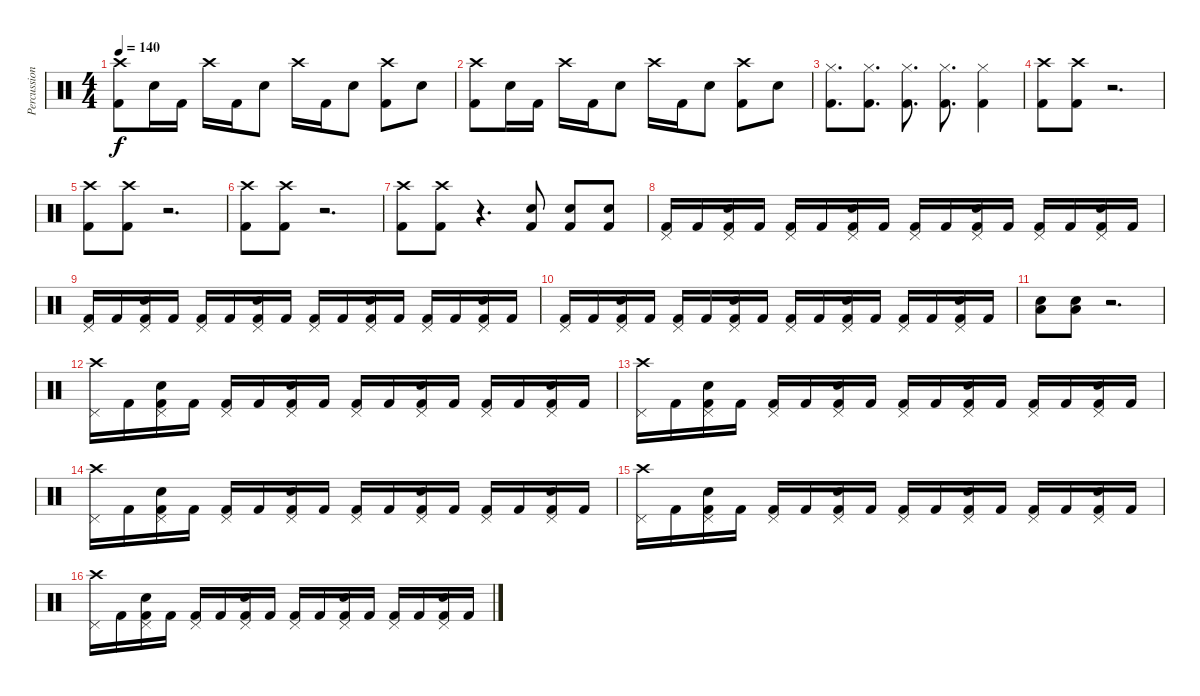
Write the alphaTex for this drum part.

\track ("Percussions" "Percussion") {instrument percussion}
\staff {score}
\articulation defaults
\ts (4 4)
\tempo 140
\clef neutral
\ks c
("Kick (hit) 2" "Crash high (hit)").8{dy f} "Electric Snare (hit)".16 "Kick (hit) 2".16 "Crash high (hit)".16 "Kick (hit) 2".16 "Electric Snare (hit)".8 "Crash high (hit)".16 "Kick (hit) 2".16 "Electric Snare (hit)".8 ("Crash high (hit)" "Kick (hit) 2").8 "Electric Snare (hit)".8 |
("Kick (hit) 2" "Crash high (hit)").8 "Electric Snare (hit)".16 "Kick (hit) 2".16 "Crash high (hit)".16 "Kick (hit) 2".16 "Electric Snare (hit)".8 "Crash high (hit)".16 "Kick (hit) 2".16 "Electric Snare (hit)".8 ("Crash high (hit)" "Kick (hit) 2").8 "Electric Snare (hit)".8 |
("Kick (hit) 2" "Hi-Hat (closed)").8{d} ("Kick (hit) 2" "Hi-Hat (closed)").8{d} ("Kick (hit) 2" "Hi-Hat (closed)").8{d} ("Kick (hit) 2" "Hi-Hat (closed)").8{d} ("Kick (hit) 2" "Hi-Hat (closed)").4 |
("Crash high (hit)" "Kick (hit) 2").8 ("Crash high (hit)" "Kick (hit) 2").8 r.2{d} |
("Crash high (hit)" "Kick (hit) 2").8 ("Crash high (hit)" "Kick (hit) 2").8 r.2{d} |
("Crash high (hit)" "Kick (hit) 2").8 ("Crash high (hit)" "Kick (hit) 2").8 r.2{d} |
("Crash high (hit)" "Kick (hit) 2").8 ("Crash high (hit)" "Kick (hit) 2").8 r.4{d} ("Kick (hit) 2" "Electric Snare (hit)").8 ("Electric Snare (hit)" "Kick (hit) 2").8 ("Electric Snare (hit)" "Kick (hit) 2").8 |
("Pedal Hi-Hat (hit)" "Kick (hit) 2").16 "Kick (hit) 2".16 ("Pedal Hi-Hat (hit)" "Electric Snare (hit)" "Kick (hit) 2").16 "Kick (hit) 2".16 ("Pedal Hi-Hat (hit)" "Kick (hit) 2").16 "Kick (hit) 2".16 ("Pedal Hi-Hat (hit)" "Electric Snare (hit)" "Kick (hit) 2").16 "Kick (hit) 2".16 ("Pedal Hi-Hat (hit)" "Kick (hit) 2").16 "Kick (hit) 2".16 ("Pedal Hi-Hat (hit)" "Electric Snare (hit)" "Kick (hit) 2").16 "Kick (hit) 2".16 ("Pedal Hi-Hat (hit)" "Kick (hit) 2").16 "Kick (hit) 2".16 ("Pedal Hi-Hat (hit)" "Electric Snare (hit)" "Kick (hit) 2").16 "Kick (hit) 2".16 |
("Pedal Hi-Hat (hit)" "Kick (hit) 2").16 "Kick (hit) 2".16 ("Pedal Hi-Hat (hit)" "Electric Snare (hit)" "Kick (hit) 2").16 "Kick (hit) 2".16 ("Pedal Hi-Hat (hit)" "Kick (hit) 2").16 "Kick (hit) 2".16 ("Pedal Hi-Hat (hit)" "Electric Snare (hit)" "Kick (hit) 2").16 "Kick (hit) 2".16 ("Pedal Hi-Hat (hit)" "Kick (hit) 2").16 "Kick (hit) 2".16 ("Pedal Hi-Hat (hit)" "Electric Snare (hit)" "Kick (hit) 2").16 "Kick (hit) 2".16 ("Pedal Hi-Hat (hit)" "Kick (hit) 2").16 "Kick (hit) 2".16 ("Pedal Hi-Hat (hit)" "Electric Snare (hit)" "Kick (hit) 2").16 "Kick (hit) 2".16 |
("Pedal Hi-Hat (hit)" "Kick (hit) 2").16 "Kick (hit) 2".16 ("Pedal Hi-Hat (hit)" "Electric Snare (hit)" "Kick (hit) 2").16 "Kick (hit) 2".16 ("Pedal Hi-Hat (hit)" "Kick (hit) 2").16 "Kick (hit) 2".16 ("Pedal Hi-Hat (hit)" "Electric Snare (hit)" "Kick (hit) 2").16 "Kick (hit) 2".16 ("Pedal Hi-Hat (hit)" "Kick (hit) 2").16 "Kick (hit) 2".16 ("Pedal Hi-Hat (hit)" "Electric Snare (hit)" "Kick (hit) 2").16 "Kick (hit) 2".16 ("Pedal Hi-Hat (hit)" "Kick (hit) 2").16 "Kick (hit) 2".16 ("Pedal Hi-Hat (hit)" "Electric Snare (hit)" "Kick (hit) 2").16 "Kick (hit) 2".16 |
("Low Floor Tom (hit)" "Electric Snare (hit)").8 ("Low Floor Tom (hit)" "Electric Snare (hit)").8 r.2{d} |
("Pedal Hi-Hat (hit)" "Crash high (hit)").16 "Kick (hit) 2".16 ("Pedal Hi-Hat (hit)" "Electric Snare (hit)" "Kick (hit) 2").16 "Kick (hit) 2".16 ("Pedal Hi-Hat (hit)" "Kick (hit) 2").16 "Kick (hit) 2".16 ("Pedal Hi-Hat (hit)" "Electric Snare (hit)" "Kick (hit) 2").16 "Kick (hit) 2".16 ("Pedal Hi-Hat (hit)" "Kick (hit) 2").16 "Kick (hit) 2".16 ("Pedal Hi-Hat (hit)" "Electric Snare (hit)" "Kick (hit) 2").16 "Kick (hit) 2".16 ("Pedal Hi-Hat (hit)" "Kick (hit) 2").16 "Kick (hit) 2".16 ("Pedal Hi-Hat (hit)" "Electric Snare (hit)" "Kick (hit) 2").16 "Kick (hit) 2".16 |
("Pedal Hi-Hat (hit)" "Crash high (hit)").16 "Kick (hit) 2".16 ("Pedal Hi-Hat (hit)" "Electric Snare (hit)" "Kick (hit) 2").16 "Kick (hit) 2".16 ("Pedal Hi-Hat (hit)" "Kick (hit) 2").16 "Kick (hit) 2".16 ("Pedal Hi-Hat (hit)" "Electric Snare (hit)" "Kick (hit) 2").16 "Kick (hit) 2".16 ("Pedal Hi-Hat (hit)" "Kick (hit) 2").16 "Kick (hit) 2".16 ("Pedal Hi-Hat (hit)" "Electric Snare (hit)" "Kick (hit) 2").16 "Kick (hit) 2".16 ("Pedal Hi-Hat (hit)" "Kick (hit) 2").16 "Kick (hit) 2".16 ("Pedal Hi-Hat (hit)" "Electric Snare (hit)" "Kick (hit) 2").16 "Kick (hit) 2".16 |
("Pedal Hi-Hat (hit)" "Crash high (hit)").16 "Kick (hit) 2".16 ("Pedal Hi-Hat (hit)" "Electric Snare (hit)" "Kick (hit) 2").16 "Kick (hit) 2".16 ("Pedal Hi-Hat (hit)" "Kick (hit) 2").16 "Kick (hit) 2".16 ("Pedal Hi-Hat (hit)" "Electric Snare (hit)" "Kick (hit) 2").16 "Kick (hit) 2".16 ("Pedal Hi-Hat (hit)" "Kick (hit) 2").16 "Kick (hit) 2".16 ("Pedal Hi-Hat (hit)" "Electric Snare (hit)" "Kick (hit) 2").16 "Kick (hit) 2".16 ("Pedal Hi-Hat (hit)" "Kick (hit) 2").16 "Kick (hit) 2".16 ("Pedal Hi-Hat (hit)" "Electric Snare (hit)" "Kick (hit) 2").16 "Kick (hit) 2".16 |
("Pedal Hi-Hat (hit)" "Crash high (hit)").16 "Kick (hit) 2".16 ("Pedal Hi-Hat (hit)" "Electric Snare (hit)" "Kick (hit) 2").16 "Kick (hit) 2".16 ("Pedal Hi-Hat (hit)" "Kick (hit) 2").16 "Kick (hit) 2".16 ("Pedal Hi-Hat (hit)" "Electric Snare (hit)" "Kick (hit) 2").16 "Kick (hit) 2".16 ("Pedal Hi-Hat (hit)" "Kick (hit) 2").16 "Kick (hit) 2".16 ("Pedal Hi-Hat (hit)" "Electric Snare (hit)" "Kick (hit) 2").16 "Kick (hit) 2".16 ("Pedal Hi-Hat (hit)" "Kick (hit) 2").16 "Kick (hit) 2".16 ("Pedal Hi-Hat (hit)" "Electric Snare (hit)" "Kick (hit) 2").16 "Kick (hit) 2".16 |
("Pedal Hi-Hat (hit)" "Crash high (hit)").16 "Kick (hit) 2".16 ("Pedal Hi-Hat (hit)" "Electric Snare (hit)" "Kick (hit) 2").16 "Kick (hit) 2".16 ("Pedal Hi-Hat (hit)" "Kick (hit) 2").16 "Kick (hit) 2".16 ("Pedal Hi-Hat (hit)" "Electric Snare (hit)" "Kick (hit) 2").16 "Kick (hit) 2".16 ("Pedal Hi-Hat (hit)" "Kick (hit) 2").16 "Kick (hit) 2".16 ("Pedal Hi-Hat (hit)" "Electric Snare (hit)" "Kick (hit) 2").16 "Kick (hit) 2".16 ("Pedal Hi-Hat (hit)" "Kick (hit) 2").16 "Kick (hit) 2".16 ("Pedal Hi-Hat (hit)" "Electric Snare (hit)" "Kick (hit) 2").16 "Kick (hit) 2".16
